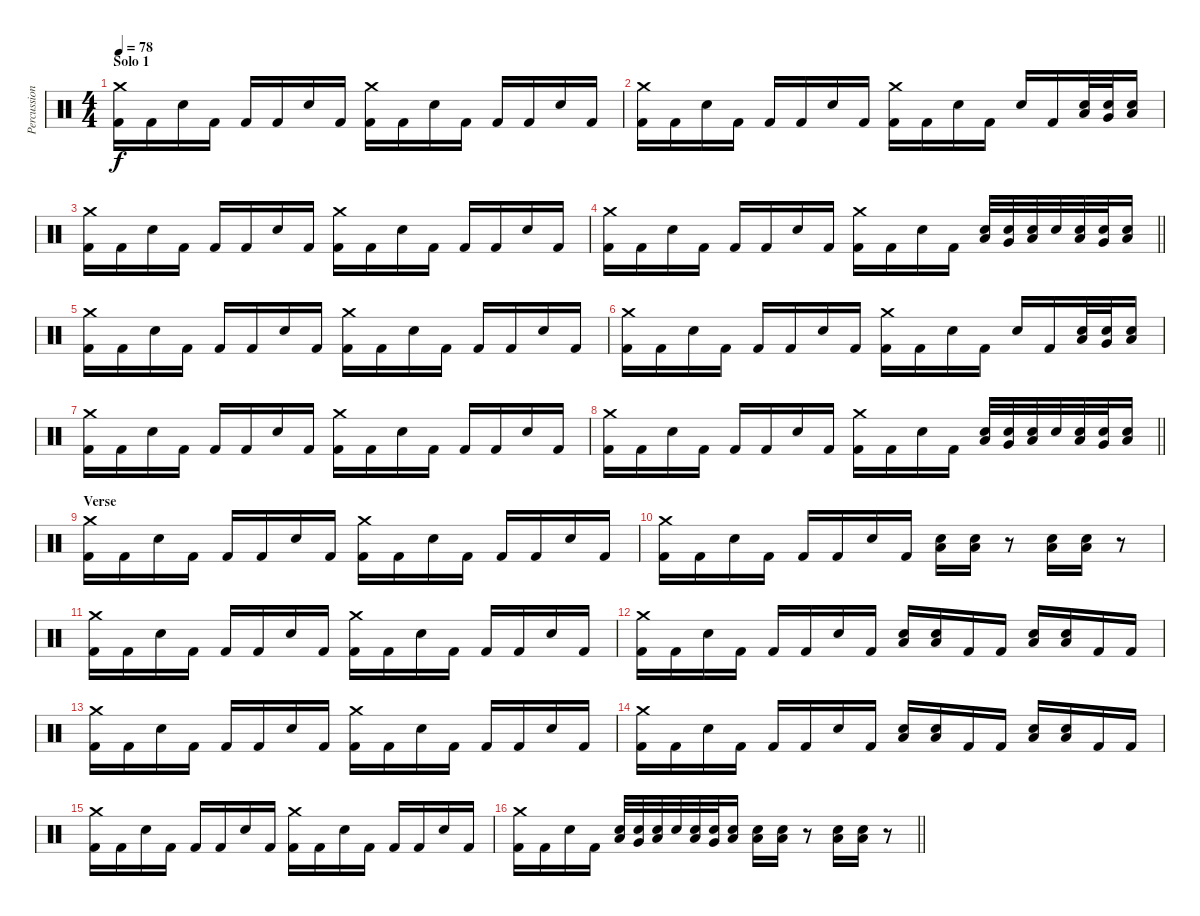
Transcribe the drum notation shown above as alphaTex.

\track ("Percussion" "Percussion") {instrument percussion}
\staff {score}
\articulation defaults
\ts (4 4)
\section ("" "Solo 1")
\tempo 78
\clef neutral
\ks c
("Crash medium (hit)" "Kick (hit) 2").16{dy f} "Kick (hit) 2".16 "Snare (hit) 2".16 "Kick (hit) 2".16 "Kick (hit) 2".16 "Kick (hit) 2".16 "Snare (hit) 2".16 "Kick (hit) 2".16 ("Crash medium (hit)" "Kick (hit) 2").16 "Kick (hit) 2".16 "Snare (hit) 2".16 "Kick (hit) 2".16 "Kick (hit) 2".16 "Kick (hit) 2".16 "Snare (hit) 2".16 "Kick (hit) 2".16 |
("Crash medium (hit)" "Kick (hit) 2").16 "Kick (hit) 2".16 "Snare (hit) 2".16 "Kick (hit) 2".16 "Kick (hit) 2".16 "Kick (hit) 2".16 "Snare (hit) 2".16 "Kick (hit) 2".16 ("Crash medium (hit)" "Kick (hit) 2").16 "Kick (hit) 2".16 "Snare (hit) 2".16 "Kick (hit) 2".16 "Snare (hit) 2".16 "Kick (hit) 2".16 ("Snare (hit) 2" "Low Tom (hit)").32 ("Snare (hit) 2" "Very Low Tom (hit)").32 ("Snare (hit) 2" "Low Floor Tom (hit)").16 |
("Crash medium (hit)" "Kick (hit) 2").16 "Kick (hit) 2".16 "Snare (hit) 2".16 "Kick (hit) 2".16 "Kick (hit) 2".16 "Kick (hit) 2".16 "Snare (hit) 2".16 "Kick (hit) 2".16 ("Crash medium (hit)" "Kick (hit) 2").16 "Kick (hit) 2".16 "Snare (hit) 2".16 "Kick (hit) 2".16 "Kick (hit) 2".16 "Kick (hit) 2".16 "Snare (hit) 2".16 "Kick (hit) 2".16 |
\barLineRight lightlight
("Crash medium (hit)" "Kick (hit) 2").16 "Kick (hit) 2".16 "Snare (hit) 2".16 "Kick (hit) 2".16 "Kick (hit) 2".16 "Kick (hit) 2".16 "Snare (hit) 2".16 "Kick (hit) 2".16 ("Crash medium (hit)" "Kick (hit) 2").16 "Kick (hit) 2".16 "Snare (hit) 2".16 "Kick (hit) 2".16 ("Snare (hit) 2" "Low Tom (hit)").32 ("Snare (hit) 2" "Very Low Tom (hit)").32 ("Snare (hit) 2" "Low Floor Tom (hit)").32 "Snare (hit) 2".32 ("Snare (hit) 2" "Low Tom (hit)").32 ("Snare (hit) 2" "Very Low Tom (hit)").32 ("Snare (hit) 2" "Low Floor Tom (hit)").16 |
("Crash medium (hit)" "Kick (hit) 2").16 "Kick (hit) 2".16 "Snare (hit) 2".16 "Kick (hit) 2".16 "Kick (hit) 2".16 "Kick (hit) 2".16 "Snare (hit) 2".16 "Kick (hit) 2".16 ("Crash medium (hit)" "Kick (hit) 2").16 "Kick (hit) 2".16 "Snare (hit) 2".16 "Kick (hit) 2".16 "Kick (hit) 2".16 "Kick (hit) 2".16 "Snare (hit) 2".16 "Kick (hit) 2".16 |
("Crash medium (hit)" "Kick (hit) 2").16 "Kick (hit) 2".16 "Snare (hit) 2".16 "Kick (hit) 2".16 "Kick (hit) 2".16 "Kick (hit) 2".16 "Snare (hit) 2".16 "Kick (hit) 2".16 ("Crash medium (hit)" "Kick (hit) 2").16 "Kick (hit) 2".16 "Snare (hit) 2".16 "Kick (hit) 2".16 "Snare (hit) 2".16 "Kick (hit) 2".16 ("Snare (hit) 2" "Low Tom (hit)").32 ("Snare (hit) 2" "Very Low Tom (hit)").32 ("Snare (hit) 2" "Low Floor Tom (hit)").16 |
("Crash medium (hit)" "Kick (hit) 2").16 "Kick (hit) 2".16 "Snare (hit) 2".16 "Kick (hit) 2".16 "Kick (hit) 2".16 "Kick (hit) 2".16 "Snare (hit) 2".16 "Kick (hit) 2".16 ("Crash medium (hit)" "Kick (hit) 2").16 "Kick (hit) 2".16 "Snare (hit) 2".16 "Kick (hit) 2".16 "Kick (hit) 2".16 "Kick (hit) 2".16 "Snare (hit) 2".16 "Kick (hit) 2".16 |
\barLineRight lightlight
("Crash medium (hit)" "Kick (hit) 2").16 "Kick (hit) 2".16 "Snare (hit) 2".16 "Kick (hit) 2".16 "Kick (hit) 2".16 "Kick (hit) 2".16 "Snare (hit) 2".16 "Kick (hit) 2".16 ("Crash medium (hit)" "Kick (hit) 2").16 "Kick (hit) 2".16 "Snare (hit) 2".16 "Kick (hit) 2".16 ("Snare (hit) 2" "Low Tom (hit)").32 ("Snare (hit) 2" "Very Low Tom (hit)").32 ("Snare (hit) 2" "Low Floor Tom (hit)").32 "Snare (hit) 2".32 ("Snare (hit) 2" "Low Tom (hit)").32 ("Snare (hit) 2" "Very Low Tom (hit)").32 ("Snare (hit) 2" "Low Floor Tom (hit)").16 |
\section ("" "Verse")
("Crash medium (hit)" "Kick (hit) 2").16 "Kick (hit) 2".16 "Snare (hit) 2".16 "Kick (hit) 2".16 "Kick (hit) 2".16 "Kick (hit) 2".16 "Snare (hit) 2".16 "Kick (hit) 2".16 ("Crash medium (hit)" "Kick (hit) 2").16 "Kick (hit) 2".16 "Snare (hit) 2".16 "Kick (hit) 2".16 "Kick (hit) 2".16 "Kick (hit) 2".16 "Snare (hit) 2".16 "Kick (hit) 2".16 |
("Crash medium (hit)" "Kick (hit) 2").16 "Kick (hit) 2".16 "Snare (hit) 2".16 "Kick (hit) 2".16 "Kick (hit) 2".16 "Kick (hit) 2".16 "Snare (hit) 2".16 "Kick (hit) 2".16 ("Electric Snare (hit)" "Low Tom (hit)").16 ("Electric Snare (hit)" "Low Tom (hit)").16 r.8 ("Electric Snare (hit)" "Low Floor Tom (hit)").16 ("Electric Snare (hit)" "Low Floor Tom (hit)").16 r.8 |
("Crash medium (hit)" "Kick (hit) 2").16 "Kick (hit) 2".16 "Snare (hit) 2".16 "Kick (hit) 2".16 "Kick (hit) 2".16 "Kick (hit) 2".16 "Snare (hit) 2".16 "Kick (hit) 2".16 ("Crash medium (hit)" "Kick (hit) 2").16 "Kick (hit) 2".16 "Snare (hit) 2".16 "Kick (hit) 2".16 "Kick (hit) 2".16 "Kick (hit) 2".16 "Snare (hit) 2".16 "Kick (hit) 2".16 |
("Crash medium (hit)" "Kick (hit) 2").16 "Kick (hit) 2".16 "Snare (hit) 2".16 "Kick (hit) 2".16 "Kick (hit) 2".16 "Kick (hit) 2".16 "Snare (hit) 2".16 "Kick (hit) 2".16 ("Electric Snare (hit)" "Low Tom (hit)").16 ("Electric Snare (hit)" "Low Tom (hit)").16 "Kick (hit) 2".16 "Kick (hit) 2".16 ("Electric Snare (hit)" "Low Floor Tom (hit)").16 ("Electric Snare (hit)" "Low Floor Tom (hit)").16 "Kick (hit) 2".16 "Kick (hit) 2".16 |
("Crash medium (hit)" "Kick (hit) 2").16 "Kick (hit) 2".16 "Snare (hit) 2".16 "Kick (hit) 2".16 "Kick (hit) 2".16 "Kick (hit) 2".16 "Snare (hit) 2".16 "Kick (hit) 2".16 ("Crash medium (hit)" "Kick (hit) 2").16 "Kick (hit) 2".16 "Snare (hit) 2".16 "Kick (hit) 2".16 "Kick (hit) 2".16 "Kick (hit) 2".16 "Snare (hit) 2".16 "Kick (hit) 2".16 |
("Crash medium (hit)" "Kick (hit) 2").16 "Kick (hit) 2".16 "Snare (hit) 2".16 "Kick (hit) 2".16 "Kick (hit) 2".16 "Kick (hit) 2".16 "Snare (hit) 2".16 "Kick (hit) 2".16 ("Electric Snare (hit)" "Low Tom (hit)").16 ("Electric Snare (hit)" "Low Tom (hit)").16 "Kick (hit) 2".16 "Kick (hit) 2".16 ("Electric Snare (hit)" "Low Floor Tom (hit)").16 ("Electric Snare (hit)" "Low Floor Tom (hit)").16 "Kick (hit) 2".16 "Kick (hit) 2".16 |
("Crash medium (hit)" "Kick (hit) 2").16 "Kick (hit) 2".16 "Snare (hit) 2".16 "Kick (hit) 2".16 "Kick (hit) 2".16 "Kick (hit) 2".16 "Snare (hit) 2".16 "Kick (hit) 2".16 ("Crash medium (hit)" "Kick (hit) 2").16 "Kick (hit) 2".16 "Snare (hit) 2".16 "Kick (hit) 2".16 "Kick (hit) 2".16 "Kick (hit) 2".16 "Snare (hit) 2".16 "Kick (hit) 2".16 |
\barLineRight lightlight
("Crash medium (hit)" "Kick (hit) 2").16 "Kick (hit) 2".16 "Snare (hit) 2".16 "Kick (hit) 2".16 ("Snare (hit) 2" "Low Tom (hit)").32 ("Snare (hit) 2" "Very Low Tom (hit)").32 ("Snare (hit) 2" "Low Floor Tom (hit)").32 "Snare (hit) 2".32 ("Snare (hit) 2" "Low Tom (hit)").32 ("Snare (hit) 2" "Very Low Tom (hit)").32 ("Snare (hit) 2" "Low Floor Tom (hit)").16 ("Electric Snare (hit)" "Low Tom (hit)").16 ("Electric Snare (hit)" "Low Tom (hit)").16 r.8 ("Electric Snare (hit)" "Low Floor Tom (hit)").16 ("Electric Snare (hit)" "Low Floor Tom (hit)").16 r.8
